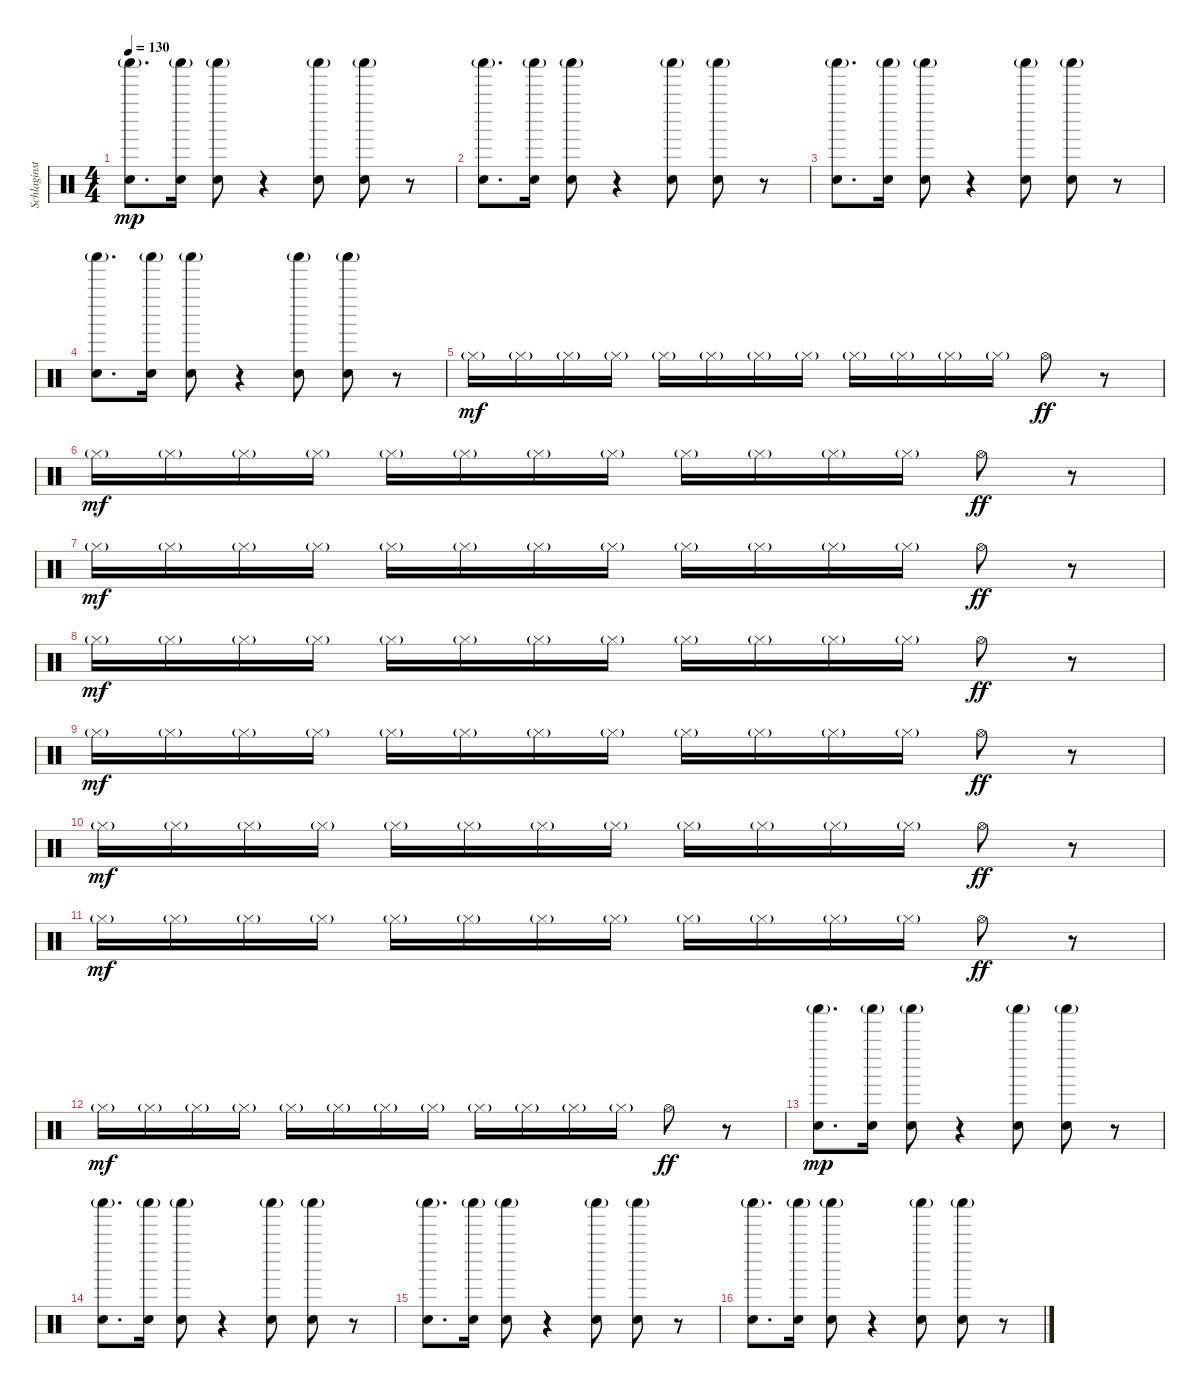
\track ("Schlaginstrumente - Auswahl" "Schlaginst") {instrument percussion}
\staff {score}
\articulation defaults
\ts (4 4)
\tempo 130
\clef neutral
\ks c
("Shaker (hit)"{g} "Hand Clap (hit)").8{d dy mp} ("Shaker (hit)"{g} "Hand Clap (hit)").16 ("Shaker (hit)"{g} "Hand Clap (hit)").8 r.4 ("Shaker (hit)"{g} "Hand Clap (hit)").8 ("Shaker (hit)"{g} "Hand Clap (hit)").8 r.8 |
("Shaker (hit)"{g} "Hand Clap (hit)").8{d} ("Shaker (hit)"{g} "Hand Clap (hit)").16 ("Shaker (hit)"{g} "Hand Clap (hit)").8 r.4 ("Shaker (hit)"{g} "Hand Clap (hit)").8 ("Shaker (hit)"{g} "Hand Clap (hit)").8 r.8 |
("Shaker (hit)"{g} "Hand Clap (hit)").8{d} ("Shaker (hit)"{g} "Hand Clap (hit)").16 ("Shaker (hit)"{g} "Hand Clap (hit)").8 r.4 ("Shaker (hit)"{g} "Hand Clap (hit)").8 ("Shaker (hit)"{g} "Hand Clap (hit)").8 r.8 |
("Shaker (hit)"{g} "Hand Clap (hit)").8{d} ("Shaker (hit)"{g} "Hand Clap (hit)").16 ("Shaker (hit)"{g} "Hand Clap (hit)").8 r.4 ("Shaker (hit)"{g} "Hand Clap (hit)").8 ("Shaker (hit)"{g} "Hand Clap (hit)").8 r.8 |
"Hi-Hat (closed)"{g}.16{dy mf} "Hi-Hat (closed)"{g}.16 "Hi-Hat (closed)"{g}.16 "Hi-Hat (closed)"{g}.16 "Hi-Hat (closed)"{g}.16 "Hi-Hat (closed)"{g}.16 "Hi-Hat (closed)"{g}.16 "Hi-Hat (closed)"{g}.16 "Hi-Hat (closed)"{g}.16 "Hi-Hat (closed)"{g}.16 "Hi-Hat (closed)"{g}.16 "Hi-Hat (closed)"{g}.16 "Hi-Hat (open)".8{dy ff} r.8 |
"Hi-Hat (closed)"{g}.16{dy mf} "Hi-Hat (closed)"{g}.16 "Hi-Hat (closed)"{g}.16 "Hi-Hat (closed)"{g}.16 "Hi-Hat (closed)"{g}.16 "Hi-Hat (closed)"{g}.16 "Hi-Hat (closed)"{g}.16 "Hi-Hat (closed)"{g}.16 "Hi-Hat (closed)"{g}.16 "Hi-Hat (closed)"{g}.16 "Hi-Hat (closed)"{g}.16 "Hi-Hat (closed)"{g}.16 "Hi-Hat (open)".8{dy ff} r.8 |
"Hi-Hat (closed)"{g}.16{dy mf} "Hi-Hat (closed)"{g}.16 "Hi-Hat (closed)"{g}.16 "Hi-Hat (closed)"{g}.16 "Hi-Hat (closed)"{g}.16 "Hi-Hat (closed)"{g}.16 "Hi-Hat (closed)"{g}.16 "Hi-Hat (closed)"{g}.16 "Hi-Hat (closed)"{g}.16 "Hi-Hat (closed)"{g}.16 "Hi-Hat (closed)"{g}.16 "Hi-Hat (closed)"{g}.16 "Hi-Hat (open)".8{dy ff} r.8 |
"Hi-Hat (closed)"{g}.16{dy mf} "Hi-Hat (closed)"{g}.16 "Hi-Hat (closed)"{g}.16 "Hi-Hat (closed)"{g}.16 "Hi-Hat (closed)"{g}.16 "Hi-Hat (closed)"{g}.16 "Hi-Hat (closed)"{g}.16 "Hi-Hat (closed)"{g}.16 "Hi-Hat (closed)"{g}.16 "Hi-Hat (closed)"{g}.16 "Hi-Hat (closed)"{g}.16 "Hi-Hat (closed)"{g}.16 "Hi-Hat (open)".8{dy ff} r.8 |
"Hi-Hat (closed)"{g}.16{dy mf} "Hi-Hat (closed)"{g}.16 "Hi-Hat (closed)"{g}.16 "Hi-Hat (closed)"{g}.16 "Hi-Hat (closed)"{g}.16 "Hi-Hat (closed)"{g}.16 "Hi-Hat (closed)"{g}.16 "Hi-Hat (closed)"{g}.16 "Hi-Hat (closed)"{g}.16 "Hi-Hat (closed)"{g}.16 "Hi-Hat (closed)"{g}.16 "Hi-Hat (closed)"{g}.16 "Hi-Hat (open)".8{dy ff} r.8 |
"Hi-Hat (closed)"{g}.16{dy mf} "Hi-Hat (closed)"{g}.16 "Hi-Hat (closed)"{g}.16 "Hi-Hat (closed)"{g}.16 "Hi-Hat (closed)"{g}.16 "Hi-Hat (closed)"{g}.16 "Hi-Hat (closed)"{g}.16 "Hi-Hat (closed)"{g}.16 "Hi-Hat (closed)"{g}.16 "Hi-Hat (closed)"{g}.16 "Hi-Hat (closed)"{g}.16 "Hi-Hat (closed)"{g}.16 "Hi-Hat (open)".8{dy ff} r.8 |
"Hi-Hat (closed)"{g}.16{dy mf} "Hi-Hat (closed)"{g}.16 "Hi-Hat (closed)"{g}.16 "Hi-Hat (closed)"{g}.16 "Hi-Hat (closed)"{g}.16 "Hi-Hat (closed)"{g}.16 "Hi-Hat (closed)"{g}.16 "Hi-Hat (closed)"{g}.16 "Hi-Hat (closed)"{g}.16 "Hi-Hat (closed)"{g}.16 "Hi-Hat (closed)"{g}.16 "Hi-Hat (closed)"{g}.16 "Hi-Hat (open)".8{dy ff} r.8 |
"Hi-Hat (closed)"{g}.16{dy mf} "Hi-Hat (closed)"{g}.16 "Hi-Hat (closed)"{g}.16 "Hi-Hat (closed)"{g}.16 "Hi-Hat (closed)"{g}.16 "Hi-Hat (closed)"{g}.16 "Hi-Hat (closed)"{g}.16 "Hi-Hat (closed)"{g}.16 "Hi-Hat (closed)"{g}.16 "Hi-Hat (closed)"{g}.16 "Hi-Hat (closed)"{g}.16 "Hi-Hat (closed)"{g}.16 "Hi-Hat (open)".8{dy ff} r.8 |
("Shaker (hit)"{g} "Hand Clap (hit)").8{d dy mp} ("Shaker (hit)"{g} "Hand Clap (hit)").16 ("Shaker (hit)"{g} "Hand Clap (hit)").8 r.4 ("Shaker (hit)"{g} "Hand Clap (hit)").8 ("Shaker (hit)"{g} "Hand Clap (hit)").8 r.8 |
("Shaker (hit)"{g} "Hand Clap (hit)").8{d} ("Shaker (hit)"{g} "Hand Clap (hit)").16 ("Shaker (hit)"{g} "Hand Clap (hit)").8 r.4 ("Shaker (hit)"{g} "Hand Clap (hit)").8 ("Shaker (hit)"{g} "Hand Clap (hit)").8 r.8 |
("Shaker (hit)"{g} "Hand Clap (hit)").8{d} ("Shaker (hit)"{g} "Hand Clap (hit)").16 ("Shaker (hit)"{g} "Hand Clap (hit)").8 r.4 ("Shaker (hit)"{g} "Hand Clap (hit)").8 ("Shaker (hit)"{g} "Hand Clap (hit)").8 r.8 |
("Shaker (hit)"{g} "Hand Clap (hit)").8{d} ("Shaker (hit)"{g} "Hand Clap (hit)").16 ("Shaker (hit)"{g} "Hand Clap (hit)").8 r.4 ("Shaker (hit)"{g} "Hand Clap (hit)").8 ("Shaker (hit)"{g} "Hand Clap (hit)").8 r.8
